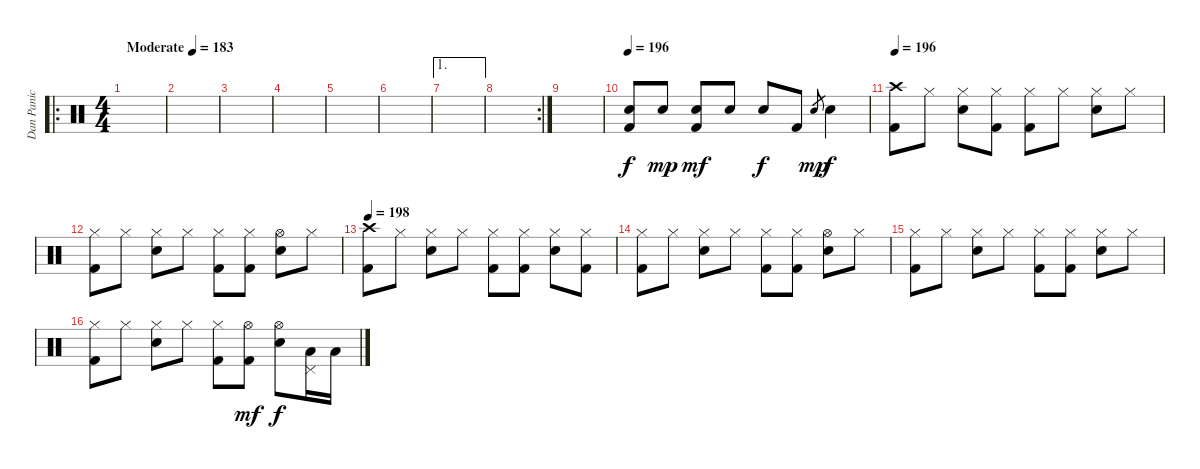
\track ("Dan Panic" "Dan Panic") {instrument percussion}
\staff {score}
\articulation defaults
\ro
\ts (4 4)
\tempo (183 "Moderate")
\clef neutral
\ks c
|
|
|
|
|
|
\ae 1
|
\rc 2
|
|
\tempo 196
("Electric Snare (hit)" "Kick (hit) 2").8 "Electric Snare (hit)".8{dy mp} ("Electric Snare (hit)" "Kick (hit) 2").8{dy mf} "Electric Snare (hit)".8 "Electric Snare (hit)".8{dy f} "Kick (hit) 2".8 "Electric Snare (hit)".8{gr dy mp} "Electric Snare (hit)".4{dy f} |
\tempo 196
("Crash high (hit)" "Kick (hit) 2").8 "Hi-Hat (closed)".8 ("Hi-Hat (closed)" "Electric Snare (hit)").8 ("Hi-Hat (closed)" "Kick (hit) 2").8 ("Hi-Hat (closed)" "Kick (hit) 2").8 "Hi-Hat (closed)".8 ("Hi-Hat (closed)" "Electric Snare (hit)").8 "Hi-Hat (closed)".8 |
("Hi-Hat (closed)" "Kick (hit) 2").8 "Hi-Hat (closed)".8 ("Hi-Hat (closed)" "Electric Snare (hit)").8 "Hi-Hat (closed)".8 ("Hi-Hat (closed)" "Kick (hit) 2").8 ("Hi-Hat (closed)" "Kick (hit) 2").8 ("Hi-Hat (open)" "Electric Snare (hit)").8 "Hi-Hat (closed)".8 |
\tempo 198
("Crash high (hit)" "Kick (hit) 2").8 "Hi-Hat (closed)".8 ("Hi-Hat (closed)" "Electric Snare (hit)").8 "Hi-Hat (closed)".8 ("Hi-Hat (closed)" "Kick (hit) 2").8 ("Hi-Hat (closed)" "Kick (hit) 2").8 ("Hi-Hat (closed)" "Electric Snare (hit)").8 ("Hi-Hat (closed)" "Kick (hit) 2").8 |
("Hi-Hat (closed)" "Kick (hit) 2").8 "Hi-Hat (closed)".8 ("Hi-Hat (closed)" "Electric Snare (hit)").8 "Hi-Hat (closed)".8 ("Hi-Hat (closed)" "Kick (hit) 2").8 ("Hi-Hat (closed)" "Kick (hit) 2").8 ("Hi-Hat (open)" "Electric Snare (hit)").8 "Hi-Hat (closed)".8 |
("Hi-Hat (closed)" "Kick (hit) 2").8 "Hi-Hat (closed)".8 ("Hi-Hat (closed)" "Electric Snare (hit)").8 "Hi-Hat (closed)".8 ("Hi-Hat (closed)" "Kick (hit) 2").8 ("Hi-Hat (closed)" "Kick (hit) 2").8 ("Hi-Hat (closed)" "Electric Snare (hit)").8 "Hi-Hat (closed)".8 |
("Hi-Hat (closed)" "Kick (hit) 2").8 "Hi-Hat (closed)".8 ("Hi-Hat (closed)" "Electric Snare (hit)").8 "Hi-Hat (closed)".8 ("Hi-Hat (closed)" "Kick (hit) 2").8 ("Hi-Hat (open)" "Kick (hit) 2").8{dy mf} ("Hi-Hat (open)" "Electric Snare (hit)").8{dy f} ("Pedal Hi-Hat (hit)" "Low Tom (hit)").16 "Low Floor Tom (hit)".16
